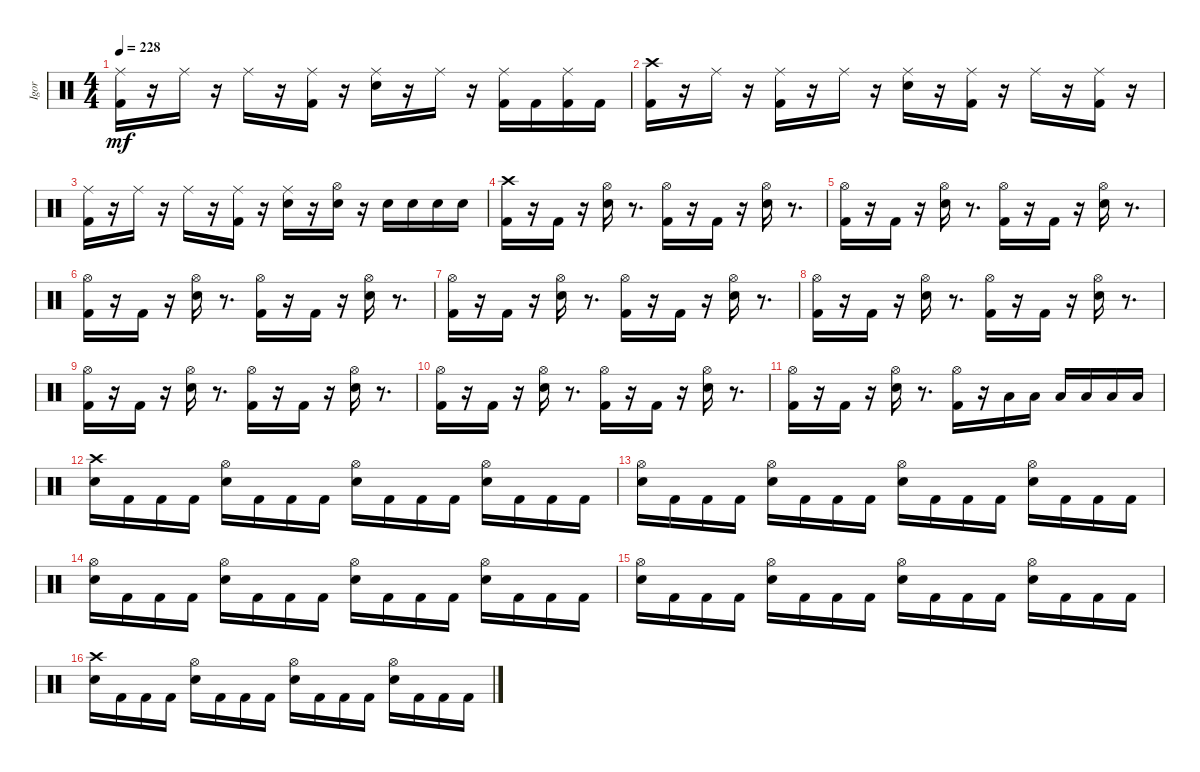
\track ("Igor" "Igor") {instrument percussion}
\staff {score}
\articulation defaults
\ts (4 4)
\tempo 228
\clef neutral
\ks c
("Kick (hit) 2" "Ride (middle)").16{dy mf} r.16 "Ride (middle)".16 r.16 "Ride (middle)".16 r.16 ("Ride (middle)" "Kick (hit) 2").16 r.16 ("Ride (middle)" "Snare (hit) 2").16 r.16 "Ride (middle)".16 r.16 ("Ride (middle)" "Kick (hit) 2").16 "Kick (hit) 2".16 ("Ride (middle)" "Kick (hit) 2").16 "Kick (hit) 2".16 |
("Kick (hit) 2" "Crash high (hit)").16 r.16 "Ride (middle)".16 r.16 ("Ride (middle)" "Kick (hit) 2").16 r.16 "Ride (middle)".16 r.16 ("Ride (middle)" "Snare (hit) 2").16 r.16 ("Ride (middle)" "Kick (hit) 2").16 r.16 "Ride (middle)".16 r.16 ("Ride (middle)" "Kick (hit) 2").16 r.16 |
("Kick (hit) 2" "Ride (middle)").16 r.16 "Ride (middle)".16 r.16 "Ride (middle)".16 r.16 ("Ride (middle)" "Kick (hit) 2").16 r.16 ("Ride (middle)" "Snare (hit) 2").16 r.16 ("Snare (hit) 2" "Hi-Hat (open)").16 r.16 "Snare (hit) 2".16 "Snare (hit) 2".16 "Snare (hit) 2".16 "Snare (hit) 2".16 |
("Kick (hit) 2" "Crash high (hit)").16 r.16 "Kick (hit) 2".16 r.16 ("Snare (hit) 2" "Hi-Hat (open)").16 r.8{d} ("Kick (hit) 2" "Hi-Hat (open)").16 r.16 "Kick (hit) 2".16 r.16 ("Snare (hit) 2" "Hi-Hat (open)").16 r.8{d} |
("Kick (hit) 2" "Hi-Hat (open)").16 r.16 "Kick (hit) 2".16 r.16 ("Snare (hit) 2" "Hi-Hat (open)").16 r.8{d} ("Kick (hit) 2" "Hi-Hat (open)").16 r.16 "Kick (hit) 2".16 r.16 ("Snare (hit) 2" "Hi-Hat (open)").16 r.8{d} |
("Kick (hit) 2" "Hi-Hat (open)").16 r.16 "Kick (hit) 2".16 r.16 ("Snare (hit) 2" "Hi-Hat (open)").16 r.8{d} ("Kick (hit) 2" "Hi-Hat (open)").16 r.16 "Kick (hit) 2".16 r.16 ("Snare (hit) 2" "Hi-Hat (open)").16 r.8{d} |
("Kick (hit) 2" "Hi-Hat (open)").16 r.16 "Kick (hit) 2".16 r.16 ("Snare (hit) 2" "Hi-Hat (open)").16 r.8{d} ("Kick (hit) 2" "Hi-Hat (open)").16 r.16 "Kick (hit) 2".16 r.16 ("Snare (hit) 2" "Hi-Hat (open)").16 r.8{d} |
("Kick (hit) 2" "Hi-Hat (open)").16 r.16 "Kick (hit) 2".16 r.16 ("Snare (hit) 2" "Hi-Hat (open)").16 r.8{d} ("Kick (hit) 2" "Hi-Hat (open)").16 r.16 "Kick (hit) 2".16 r.16 ("Snare (hit) 2" "Hi-Hat (open)").16 r.8{d} |
("Kick (hit) 2" "Hi-Hat (open)").16 r.16 "Kick (hit) 2".16 r.16 ("Snare (hit) 2" "Hi-Hat (open)").16 r.8{d} ("Kick (hit) 2" "Hi-Hat (open)").16 r.16 "Kick (hit) 2".16 r.16 ("Snare (hit) 2" "Hi-Hat (open)").16 r.8{d} |
("Kick (hit) 2" "Hi-Hat (open)").16 r.16 "Kick (hit) 2".16 r.16 ("Snare (hit) 2" "Hi-Hat (open)").16 r.8{d} ("Kick (hit) 2" "Hi-Hat (open)").16 r.16 "Kick (hit) 2".16 r.16 ("Snare (hit) 2" "Hi-Hat (open)").16 r.8{d} |
("Kick (hit) 2" "Hi-Hat (open)").16 r.16 "Kick (hit) 2".16 r.16 ("Snare (hit) 2" "Hi-Hat (open)").16 r.8{d} ("Kick (hit) 2" "Hi-Hat (open)").16 r.16 "Low Tom (hit)".16 "Low Tom (hit)".16 "Low Tom (hit)".16 "Low Tom (hit)".16 "Low Floor Tom (hit)".16 "Low Floor Tom (hit)".16 |
("Snare (hit) 2" "Crash high (hit)").16 "Kick (hit) 2".16 "Kick (hit) 2".16 "Kick (hit) 2".16 ("Snare (hit) 2" "Hi-Hat (open)").16 "Kick (hit) 2".16 "Kick (hit) 2".16 "Kick (hit) 2".16 ("Snare (hit) 2" "Hi-Hat (open)").16 "Kick (hit) 2".16 "Kick (hit) 2".16 "Kick (hit) 2".16 ("Snare (hit) 2" "Hi-Hat (open)").16 "Kick (hit) 2".16 "Kick (hit) 2".16 "Kick (hit) 2".16 |
("Snare (hit) 2" "Hi-Hat (open)").16 "Kick (hit) 2".16 "Kick (hit) 2".16 "Kick (hit) 2".16 ("Snare (hit) 2" "Hi-Hat (open)").16 "Kick (hit) 2".16 "Kick (hit) 2".16 "Kick (hit) 2".16 ("Snare (hit) 2" "Hi-Hat (open)").16 "Kick (hit) 2".16 "Kick (hit) 2".16 "Kick (hit) 2".16 ("Snare (hit) 2" "Hi-Hat (open)").16 "Kick (hit) 2".16 "Kick (hit) 2".16 "Kick (hit) 2".16 |
("Snare (hit) 2" "Hi-Hat (open)").16 "Kick (hit) 2".16 "Kick (hit) 2".16 "Kick (hit) 2".16 ("Snare (hit) 2" "Hi-Hat (open)").16 "Kick (hit) 2".16 "Kick (hit) 2".16 "Kick (hit) 2".16 ("Snare (hit) 2" "Hi-Hat (open)").16 "Kick (hit) 2".16 "Kick (hit) 2".16 "Kick (hit) 2".16 ("Snare (hit) 2" "Hi-Hat (open)").16 "Kick (hit) 2".16 "Kick (hit) 2".16 "Kick (hit) 2".16 |
("Snare (hit) 2" "Hi-Hat (open)").16 "Kick (hit) 2".16 "Kick (hit) 2".16 "Kick (hit) 2".16 ("Snare (hit) 2" "Hi-Hat (open)").16 "Kick (hit) 2".16 "Kick (hit) 2".16 "Kick (hit) 2".16 ("Snare (hit) 2" "Hi-Hat (open)").16 "Kick (hit) 2".16 "Kick (hit) 2".16 "Kick (hit) 2".16 ("Snare (hit) 2" "Hi-Hat (open)").16 "Kick (hit) 2".16 "Kick (hit) 2".16 "Kick (hit) 2".16 |
("Snare (hit) 2" "Crash high (hit)").16 "Kick (hit) 2".16 "Kick (hit) 2".16 "Kick (hit) 2".16 ("Snare (hit) 2" "Hi-Hat (open)").16 "Kick (hit) 2".16 "Kick (hit) 2".16 "Kick (hit) 2".16 ("Snare (hit) 2" "Hi-Hat (open)").16 "Kick (hit) 2".16 "Kick (hit) 2".16 "Kick (hit) 2".16 ("Snare (hit) 2" "Hi-Hat (open)").16 "Kick (hit) 2".16 "Kick (hit) 2".16 "Kick (hit) 2".16
